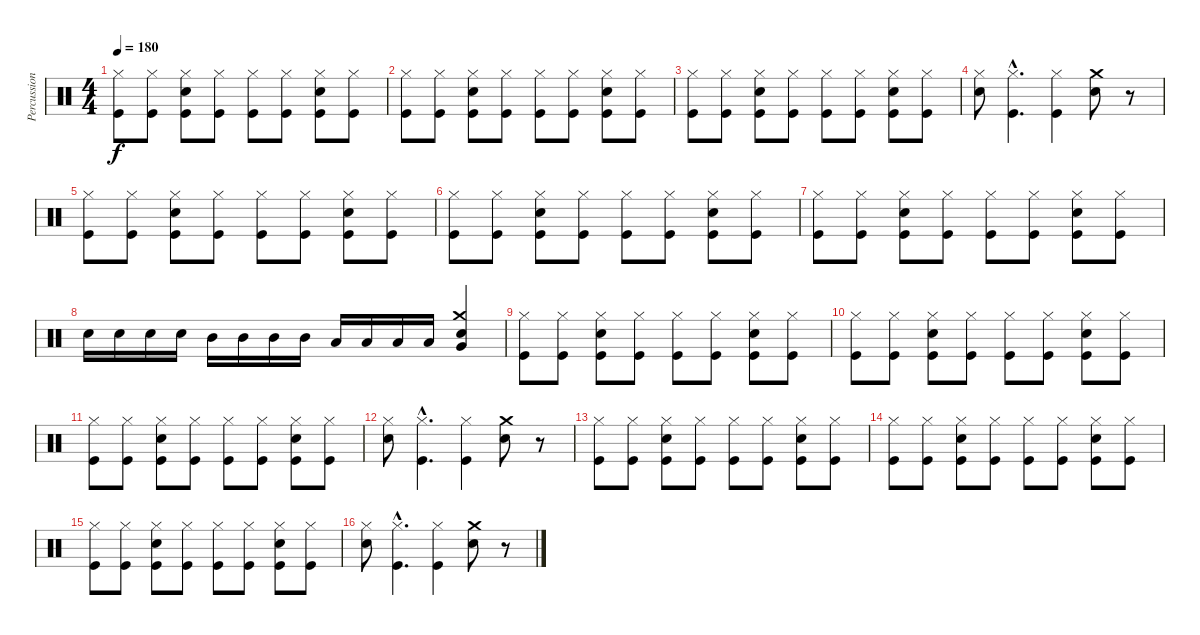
\track ("Percussion" "Percussion") {instrument percussion}
\staff {score}
\articulation defaults
\ts (4 4)
\tempo 180
\clef neutral
\ks c
("Hi-Hat (closed)" "Kick (hit)").8{dy f} ("Hi-Hat (closed)" "Kick (hit)").8 ("Hi-Hat (closed)" "Snare (hit) 2" "Kick (hit)").8 ("Hi-Hat (closed)" "Kick (hit)").8 ("Hi-Hat (closed)" "Kick (hit)").8 ("Hi-Hat (closed)" "Kick (hit)").8 ("Hi-Hat (closed)" "Snare (hit) 2" "Kick (hit)").8 ("Hi-Hat (closed)" "Kick (hit)").8 |
("Hi-Hat (closed)" "Kick (hit)").8 ("Hi-Hat (closed)" "Kick (hit)").8 ("Hi-Hat (closed)" "Snare (hit) 2" "Kick (hit)").8 ("Hi-Hat (closed)" "Kick (hit)").8 ("Hi-Hat (closed)" "Kick (hit)").8 ("Hi-Hat (closed)" "Kick (hit)").8 ("Hi-Hat (closed)" "Snare (hit) 2" "Kick (hit)").8 ("Hi-Hat (closed)" "Kick (hit)").8 |
("Hi-Hat (closed)" "Kick (hit)").8 ("Hi-Hat (closed)" "Kick (hit)").8 ("Hi-Hat (closed)" "Snare (hit) 2" "Kick (hit)").8 ("Hi-Hat (closed)" "Kick (hit)").8 ("Hi-Hat (closed)" "Kick (hit)").8 ("Hi-Hat (closed)" "Kick (hit)").8 ("Hi-Hat (closed)" "Snare (hit) 2" "Kick (hit)").8 ("Hi-Hat (closed)" "Kick (hit)").8 |
("Hi-Hat (closed)" "Snare (hit) 2").8 ("Hi-Hat (closed)"{hac} "Kick (hit)"{hac}).4{d} ("Hi-Hat (closed)" "Kick (hit)").4 ("Crash medium (hit)" "Snare (hit) 2").8 r.8 |
("Hi-Hat (closed)" "Kick (hit)").8 ("Hi-Hat (closed)" "Kick (hit)").8 ("Hi-Hat (closed)" "Snare (hit) 2" "Kick (hit)").8 ("Hi-Hat (closed)" "Kick (hit)").8 ("Hi-Hat (closed)" "Kick (hit)").8 ("Hi-Hat (closed)" "Kick (hit)").8 ("Hi-Hat (closed)" "Snare (hit) 2" "Kick (hit)").8 ("Hi-Hat (closed)" "Kick (hit)").8 |
("Hi-Hat (closed)" "Kick (hit)").8 ("Hi-Hat (closed)" "Kick (hit)").8 ("Hi-Hat (closed)" "Snare (hit) 2" "Kick (hit)").8 ("Hi-Hat (closed)" "Kick (hit)").8 ("Hi-Hat (closed)" "Kick (hit)").8 ("Hi-Hat (closed)" "Kick (hit)").8 ("Hi-Hat (closed)" "Snare (hit) 2" "Kick (hit)").8 ("Hi-Hat (closed)" "Kick (hit)").8 |
("Hi-Hat (closed)" "Kick (hit)").8 ("Hi-Hat (closed)" "Kick (hit)").8 ("Hi-Hat (closed)" "Snare (hit) 2" "Kick (hit)").8 ("Hi-Hat (closed)" "Kick (hit)").8 ("Hi-Hat (closed)" "Kick (hit)").8 ("Hi-Hat (closed)" "Kick (hit)").8 ("Hi-Hat (closed)" "Snare (hit) 2" "Kick (hit)").8 ("Hi-Hat (closed)" "Kick (hit)").8 |
"Snare (hit) 2".16 "Snare (hit) 2".16 "Snare (hit) 2".16 "Snare (hit) 2".16 "Mid Tom (hit)".16 "Mid Tom (hit)".16 "Mid Tom (hit)".16 "Mid Tom (hit)".16 "Low Tom (hit)".16 "Low Tom (hit)".16 "Low Tom (hit)".16 "Low Tom (hit)".16 ("Very Low Tom (hit)" "Snare (hit) 2" "Crash medium (hit)").4 |
("Hi-Hat (closed)" "Kick (hit)").8 ("Hi-Hat (closed)" "Kick (hit)").8 ("Hi-Hat (closed)" "Snare (hit) 2" "Kick (hit)").8 ("Hi-Hat (closed)" "Kick (hit)").8 ("Hi-Hat (closed)" "Kick (hit)").8 ("Hi-Hat (closed)" "Kick (hit)").8 ("Hi-Hat (closed)" "Snare (hit) 2" "Kick (hit)").8 ("Hi-Hat (closed)" "Kick (hit)").8 |
("Hi-Hat (closed)" "Kick (hit)").8 ("Hi-Hat (closed)" "Kick (hit)").8 ("Hi-Hat (closed)" "Snare (hit) 2" "Kick (hit)").8 ("Hi-Hat (closed)" "Kick (hit)").8 ("Hi-Hat (closed)" "Kick (hit)").8 ("Hi-Hat (closed)" "Kick (hit)").8 ("Hi-Hat (closed)" "Snare (hit) 2" "Kick (hit)").8 ("Hi-Hat (closed)" "Kick (hit)").8 |
("Hi-Hat (closed)" "Kick (hit)").8 ("Hi-Hat (closed)" "Kick (hit)").8 ("Hi-Hat (closed)" "Snare (hit) 2" "Kick (hit)").8 ("Hi-Hat (closed)" "Kick (hit)").8 ("Hi-Hat (closed)" "Kick (hit)").8 ("Hi-Hat (closed)" "Kick (hit)").8 ("Hi-Hat (closed)" "Snare (hit) 2" "Kick (hit)").8 ("Hi-Hat (closed)" "Kick (hit)").8 |
("Hi-Hat (closed)" "Snare (hit) 2").8 ("Hi-Hat (closed)"{hac} "Kick (hit)"{hac}).4{d} ("Hi-Hat (closed)" "Kick (hit)").4 ("Crash medium (hit)" "Snare (hit) 2").8 r.8 |
("Hi-Hat (closed)" "Kick (hit)").8 ("Hi-Hat (closed)" "Kick (hit)").8 ("Hi-Hat (closed)" "Snare (hit) 2" "Kick (hit)").8 ("Hi-Hat (closed)" "Kick (hit)").8 ("Hi-Hat (closed)" "Kick (hit)").8 ("Hi-Hat (closed)" "Kick (hit)").8 ("Hi-Hat (closed)" "Snare (hit) 2" "Kick (hit)").8 ("Hi-Hat (closed)" "Kick (hit)").8 |
("Hi-Hat (closed)" "Kick (hit)").8 ("Hi-Hat (closed)" "Kick (hit)").8 ("Hi-Hat (closed)" "Snare (hit) 2" "Kick (hit)").8 ("Hi-Hat (closed)" "Kick (hit)").8 ("Hi-Hat (closed)" "Kick (hit)").8 ("Hi-Hat (closed)" "Kick (hit)").8 ("Hi-Hat (closed)" "Snare (hit) 2" "Kick (hit)").8 ("Hi-Hat (closed)" "Kick (hit)").8 |
("Hi-Hat (closed)" "Kick (hit)").8 ("Hi-Hat (closed)" "Kick (hit)").8 ("Hi-Hat (closed)" "Snare (hit) 2" "Kick (hit)").8 ("Hi-Hat (closed)" "Kick (hit)").8 ("Hi-Hat (closed)" "Kick (hit)").8 ("Hi-Hat (closed)" "Kick (hit)").8 ("Hi-Hat (closed)" "Snare (hit) 2" "Kick (hit)").8 ("Hi-Hat (closed)" "Kick (hit)").8 |
("Hi-Hat (closed)" "Snare (hit) 2").8 ("Hi-Hat (closed)"{hac} "Kick (hit)"{hac}).4{d} ("Hi-Hat (closed)" "Kick (hit)").4 ("Crash medium (hit)" "Snare (hit) 2").8 r.8
